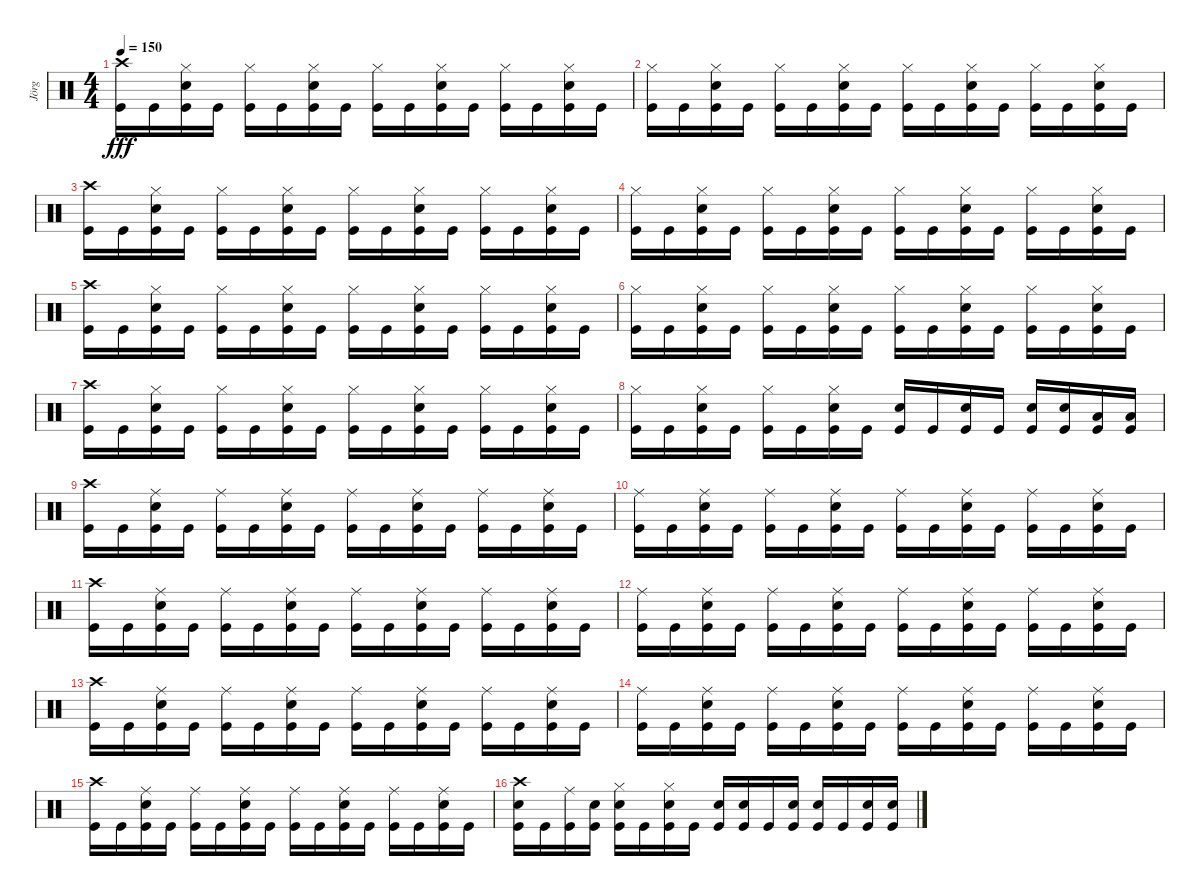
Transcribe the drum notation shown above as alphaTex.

\track ("Jörg" "Jörg") {instrument percussion}
\staff {score}
\articulation defaults
\ts (4 4)
\tempo 150
\clef neutral
\ks c
("Crash high (hit)" "Kick (hit)").16{dy fff} "Kick (hit)".16 ("Snare (hit) 2" "Hi-Hat (closed)" "Kick (hit)").16 "Kick (hit)".16 ("Hi-Hat (closed)" "Kick (hit)").16 "Kick (hit)".16 ("Snare (hit) 2" "Hi-Hat (closed)" "Kick (hit)").16 "Kick (hit)".16 ("Hi-Hat (closed)" "Kick (hit)").16 "Kick (hit)".16 ("Snare (hit) 2" "Hi-Hat (closed)" "Kick (hit)").16 "Kick (hit)".16 ("Hi-Hat (closed)" "Kick (hit)").16 "Kick (hit)".16 ("Snare (hit) 2" "Hi-Hat (closed)" "Kick (hit)").16 "Kick (hit)".16 |
("Hi-Hat (closed)" "Kick (hit)").16 "Kick (hit)".16 ("Snare (hit) 2" "Hi-Hat (closed)" "Kick (hit)").16 "Kick (hit)".16 ("Hi-Hat (closed)" "Kick (hit)").16 "Kick (hit)".16 ("Snare (hit) 2" "Hi-Hat (closed)" "Kick (hit)").16 "Kick (hit)".16 ("Hi-Hat (closed)" "Kick (hit)").16 "Kick (hit)".16 ("Snare (hit) 2" "Hi-Hat (closed)" "Kick (hit)").16 "Kick (hit)".16 ("Hi-Hat (closed)" "Kick (hit)").16 "Kick (hit)".16 ("Snare (hit) 2" "Hi-Hat (closed)" "Kick (hit)").16 "Kick (hit)".16 |
("Crash high (hit)" "Kick (hit)").16 "Kick (hit)".16 ("Snare (hit) 2" "Hi-Hat (closed)" "Kick (hit)").16 "Kick (hit)".16 ("Hi-Hat (closed)" "Kick (hit)").16 "Kick (hit)".16 ("Snare (hit) 2" "Hi-Hat (closed)" "Kick (hit)").16 "Kick (hit)".16 ("Hi-Hat (closed)" "Kick (hit)").16 "Kick (hit)".16 ("Snare (hit) 2" "Hi-Hat (closed)" "Kick (hit)").16 "Kick (hit)".16 ("Hi-Hat (closed)" "Kick (hit)").16 "Kick (hit)".16 ("Snare (hit) 2" "Hi-Hat (closed)" "Kick (hit)").16 "Kick (hit)".16 |
("Hi-Hat (closed)" "Kick (hit)").16 "Kick (hit)".16 ("Snare (hit) 2" "Hi-Hat (closed)" "Kick (hit)").16 "Kick (hit)".16 ("Hi-Hat (closed)" "Kick (hit)").16 "Kick (hit)".16 ("Snare (hit) 2" "Hi-Hat (closed)" "Kick (hit)").16 "Kick (hit)".16 ("Hi-Hat (closed)" "Kick (hit)").16 "Kick (hit)".16 ("Snare (hit) 2" "Hi-Hat (closed)" "Kick (hit)").16 "Kick (hit)".16 ("Hi-Hat (closed)" "Kick (hit)").16 "Kick (hit)".16 ("Snare (hit) 2" "Hi-Hat (closed)" "Kick (hit)").16 "Kick (hit)".16 |
("Crash high (hit)" "Kick (hit)").16 "Kick (hit)".16 ("Snare (hit) 2" "Hi-Hat (closed)" "Kick (hit)").16 "Kick (hit)".16 ("Hi-Hat (closed)" "Kick (hit)").16 "Kick (hit)".16 ("Snare (hit) 2" "Hi-Hat (closed)" "Kick (hit)").16 "Kick (hit)".16 ("Hi-Hat (closed)" "Kick (hit)").16 "Kick (hit)".16 ("Snare (hit) 2" "Hi-Hat (closed)" "Kick (hit)").16 "Kick (hit)".16 ("Hi-Hat (closed)" "Kick (hit)").16 "Kick (hit)".16 ("Snare (hit) 2" "Hi-Hat (closed)" "Kick (hit)").16 "Kick (hit)".16 |
("Hi-Hat (closed)" "Kick (hit)").16 "Kick (hit)".16 ("Snare (hit) 2" "Hi-Hat (closed)" "Kick (hit)").16 "Kick (hit)".16 ("Hi-Hat (closed)" "Kick (hit)").16 "Kick (hit)".16 ("Snare (hit) 2" "Hi-Hat (closed)" "Kick (hit)").16 "Kick (hit)".16 ("Hi-Hat (closed)" "Kick (hit)").16 "Kick (hit)".16 ("Snare (hit) 2" "Hi-Hat (closed)" "Kick (hit)").16 "Kick (hit)".16 ("Hi-Hat (closed)" "Kick (hit)").16 "Kick (hit)".16 ("Snare (hit) 2" "Hi-Hat (closed)" "Kick (hit)").16 "Kick (hit)".16 |
("Crash high (hit)" "Kick (hit)").16 "Kick (hit)".16 ("Snare (hit) 2" "Hi-Hat (closed)" "Kick (hit)").16 "Kick (hit)".16 ("Hi-Hat (closed)" "Kick (hit)").16 "Kick (hit)".16 ("Snare (hit) 2" "Hi-Hat (closed)" "Kick (hit)").16 "Kick (hit)".16 ("Hi-Hat (closed)" "Kick (hit)").16 "Kick (hit)".16 ("Snare (hit) 2" "Hi-Hat (closed)" "Kick (hit)").16 "Kick (hit)".16 ("Hi-Hat (closed)" "Kick (hit)").16 "Kick (hit)".16 ("Snare (hit) 2" "Hi-Hat (closed)" "Kick (hit)").16 "Kick (hit)".16 |
("Hi-Hat (closed)" "Kick (hit)").16 "Kick (hit)".16 ("Snare (hit) 2" "Hi-Hat (closed)" "Kick (hit)").16 "Kick (hit)".16 ("Hi-Hat (closed)" "Kick (hit)").16 "Kick (hit)".16 ("Snare (hit) 2" "Hi-Hat (closed)" "Kick (hit)").16 "Kick (hit)".16 ("Snare (hit) 2" "Kick (hit)").16 "Kick (hit)".16 ("Snare (hit) 2" "Kick (hit)").16 "Kick (hit)".16 ("Snare (hit) 2" "Kick (hit)").16 ("Snare (hit) 2" "Kick (hit)").16 ("Low Tom (hit)" "Kick (hit)").16 ("Low Tom (hit)" "Kick (hit)").16 |
("Crash high (hit)" "Kick (hit)").16 "Kick (hit)".16 ("Ride (middle)" "Snare (hit) 2" "Kick (hit)").16 "Kick (hit)".16 ("Ride (middle)" "Kick (hit)").16 "Kick (hit)".16 ("Ride (middle)" "Snare (hit) 2" "Kick (hit)").16 "Kick (hit)".16 ("Ride (middle)" "Kick (hit)").16 "Kick (hit)".16 ("Ride (middle)" "Snare (hit) 2" "Kick (hit)").16 "Kick (hit)".16 ("Ride (middle)" "Kick (hit)").16 "Kick (hit)".16 ("Ride (middle)" "Snare (hit) 2" "Kick (hit)").16 "Kick (hit)".16 |
("Ride (middle)" "Kick (hit)").16 "Kick (hit)".16 ("Ride (middle)" "Snare (hit) 2" "Kick (hit)").16 "Kick (hit)".16 ("Ride (middle)" "Kick (hit)").16 "Kick (hit)".16 ("Ride (middle)" "Snare (hit) 2" "Kick (hit)").16 "Kick (hit)".16 ("Ride (middle)" "Kick (hit)").16 "Kick (hit)".16 ("Ride (middle)" "Snare (hit) 2" "Kick (hit)").16 "Kick (hit)".16 ("Ride (middle)" "Kick (hit)").16 "Kick (hit)".16 ("Ride (middle)" "Snare (hit) 2" "Kick (hit)").16 "Kick (hit)".16 |
("Crash high (hit)" "Kick (hit)").16 "Kick (hit)".16 ("Ride (middle)" "Snare (hit) 2" "Kick (hit)").16 "Kick (hit)".16 ("Ride (middle)" "Kick (hit)").16 "Kick (hit)".16 ("Ride (middle)" "Snare (hit) 2" "Kick (hit)").16 "Kick (hit)".16 ("Ride (middle)" "Kick (hit)").16 "Kick (hit)".16 ("Ride (middle)" "Snare (hit) 2" "Kick (hit)").16 "Kick (hit)".16 ("Ride (middle)" "Kick (hit)").16 "Kick (hit)".16 ("Ride (middle)" "Snare (hit) 2" "Kick (hit)").16 "Kick (hit)".16 |
("Ride (middle)" "Kick (hit)").16 "Kick (hit)".16 ("Ride (middle)" "Snare (hit) 2" "Kick (hit)").16 "Kick (hit)".16 ("Ride (middle)" "Kick (hit)").16 "Kick (hit)".16 ("Ride (middle)" "Snare (hit) 2" "Kick (hit)").16 "Kick (hit)".16 ("Ride (middle)" "Kick (hit)").16 "Kick (hit)".16 ("Ride (middle)" "Snare (hit) 2" "Kick (hit)").16 "Kick (hit)".16 ("Ride (middle)" "Kick (hit)").16 "Kick (hit)".16 ("Ride (middle)" "Snare (hit) 2" "Kick (hit)").16 "Kick (hit)".16 |
("Crash high (hit)" "Kick (hit)").16 "Kick (hit)".16 ("Ride (middle)" "Snare (hit) 2" "Kick (hit)").16 "Kick (hit)".16 ("Ride (middle)" "Kick (hit)").16 "Kick (hit)".16 ("Ride (middle)" "Snare (hit) 2" "Kick (hit)").16 "Kick (hit)".16 ("Ride (middle)" "Kick (hit)").16 "Kick (hit)".16 ("Ride (middle)" "Snare (hit) 2" "Kick (hit)").16 "Kick (hit)".16 ("Ride (middle)" "Kick (hit)").16 "Kick (hit)".16 ("Ride (middle)" "Snare (hit) 2" "Kick (hit)").16 "Kick (hit)".16 |
("Ride (middle)" "Kick (hit)").16 "Kick (hit)".16 ("Ride (middle)" "Snare (hit) 2" "Kick (hit)").16 "Kick (hit)".16 ("Ride (middle)" "Kick (hit)").16 "Kick (hit)".16 ("Ride (middle)" "Snare (hit) 2" "Kick (hit)").16 "Kick (hit)".16 ("Ride (middle)" "Kick (hit)").16 "Kick (hit)".16 ("Ride (middle)" "Snare (hit) 2" "Kick (hit)").16 "Kick (hit)".16 ("Ride (middle)" "Kick (hit)").16 "Kick (hit)".16 ("Ride (middle)" "Snare (hit) 2" "Kick (hit)").16 "Kick (hit)".16 |
("Crash high (hit)" "Kick (hit)").16 "Kick (hit)".16 ("Ride (middle)" "Snare (hit) 2" "Kick (hit)").16 "Kick (hit)".16 ("Ride (middle)" "Kick (hit)").16 "Kick (hit)".16 ("Ride (middle)" "Snare (hit) 2" "Kick (hit)").16 "Kick (hit)".16 ("Ride (middle)" "Kick (hit)").16 "Kick (hit)".16 ("Ride (middle)" "Snare (hit) 2" "Kick (hit)").16 "Kick (hit)".16 ("Ride (middle)" "Kick (hit)").16 "Kick (hit)".16 ("Ride (middle)" "Snare (hit) 2" "Kick (hit)").16 "Kick (hit)".16 |
("Crash high (hit)" "Snare (hit) 2" "Kick (hit)").16 "Kick (hit)".16 ("Ride (middle)" "Kick (hit)").16 ("Snare (hit) 2" "Kick (hit)").16 ("Hi-Hat (closed)" "Snare (hit) 2" "Kick (hit)").16 "Kick (hit)".16 ("Hi-Hat (closed)" "Snare (hit) 2" "Kick (hit)").16 "Kick (hit)".16 ("Snare (hit) 2" "Kick (hit)").16 ("Snare (hit) 2" "Kick (hit)").16 "Kick (hit)".16 ("Snare (hit) 2" "Kick (hit)").16 ("Snare (hit) 2" "Kick (hit)").16 "Kick (hit)".16 ("Snare (hit) 2" "Kick (hit)").16 ("Snare (hit) 2" "Kick (hit)").16
